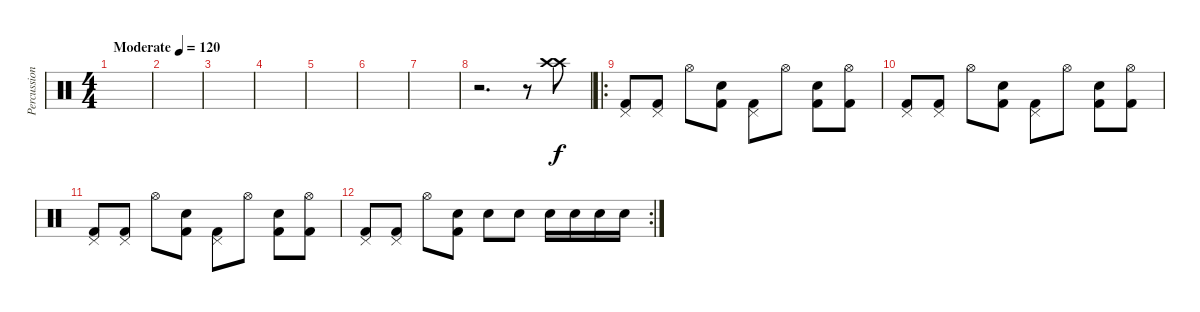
\track ("Percussion" "Percussion") {instrument percussion}
\staff {score}
\articulation defaults
\ts (4 4)
\tempo (120 "Moderate")
\clef neutral
\ks c
|
|
|
|
|
|
|
r.2{d} r.8 ("Crash high (hit)" "Crash high (hit)").8 |
\ro
("Kick (hit) 2" "Pedal Hi-Hat (hit)").8 ("Kick (hit) 2" "Pedal Hi-Hat (hit)").8 "Hi-Hat (open)".8 ("Kick (hit) 2" "Snare (hit) 2").8 ("Kick (hit) 2" "Pedal Hi-Hat (hit)").8 "Hi-Hat (open)".8 ("Kick (hit) 2" "Snare (hit) 2").8 ("Kick (hit) 2" "Hi-Hat (open)").8 |
("Kick (hit) 2" "Pedal Hi-Hat (hit)").8 ("Kick (hit) 2" "Pedal Hi-Hat (hit)").8 "Hi-Hat (open)".8 ("Kick (hit) 2" "Snare (hit) 2").8 ("Kick (hit) 2" "Pedal Hi-Hat (hit)").8 "Hi-Hat (open)".8 ("Kick (hit) 2" "Snare (hit) 2").8 ("Kick (hit) 2" "Hi-Hat (open)").8 |
("Kick (hit) 2" "Pedal Hi-Hat (hit)").8 ("Kick (hit) 2" "Pedal Hi-Hat (hit)").8 "Hi-Hat (open)".8 ("Kick (hit) 2" "Snare (hit) 2").8 ("Kick (hit) 2" "Pedal Hi-Hat (hit)").8 "Hi-Hat (open)".8 ("Kick (hit) 2" "Snare (hit) 2").8 ("Kick (hit) 2" "Hi-Hat (open)").8 |
\rc 2
("Kick (hit) 2" "Pedal Hi-Hat (hit)").8 ("Kick (hit) 2" "Pedal Hi-Hat (hit)").8 "Hi-Hat (open)".8 ("Kick (hit) 2" "Snare (hit) 2").8 "Snare (hit) 2".8 "Snare (hit) 2".8 "Snare (hit) 2".16 "Snare (hit) 2".16 "Snare (hit) 2".16 "Snare (hit) 2".16
